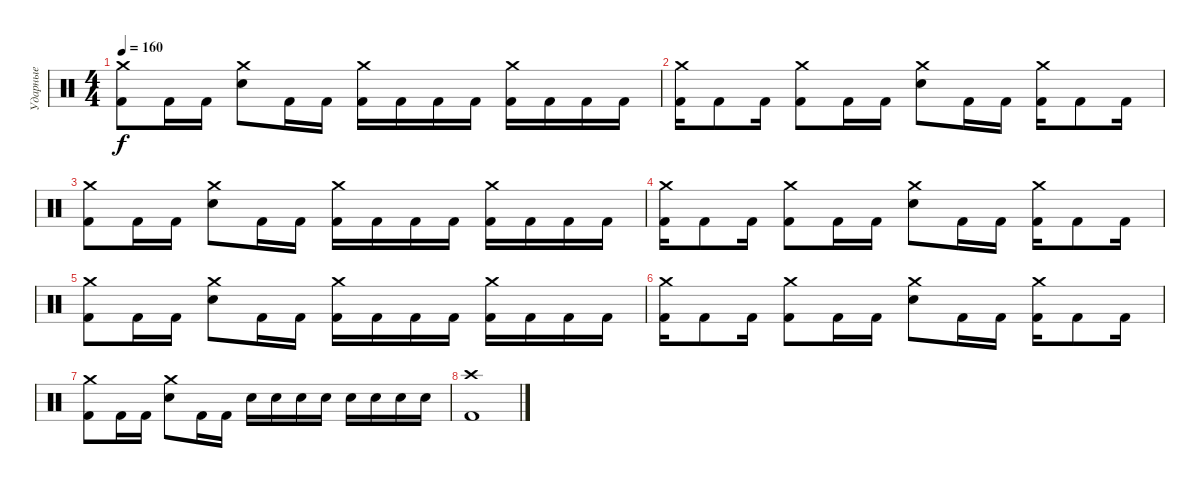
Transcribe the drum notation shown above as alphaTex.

\track ("Ударные" "Ударные") {instrument percussion}
\staff {score}
\articulation defaults
\ts (4 4)
\tempo 160
\clef neutral
\ks c
("Crash medium (hit)" "Kick (hit) 2").8{dy f} "Kick (hit) 2".16 "Kick (hit) 2".16 ("Crash medium (hit)" "Electric Snare (hit)").8 "Kick (hit) 2".16 "Kick (hit) 2".16 ("Crash medium (hit)" "Kick (hit) 2").16 "Kick (hit) 2".16 "Kick (hit) 2".16 "Kick (hit) 2".16 ("Crash medium (hit)" "Kick (hit) 2").16 "Kick (hit) 2".16 "Kick (hit) 2".16 "Kick (hit) 2".16 |
("Crash medium (hit)" "Kick (hit) 2").16 "Kick (hit) 2".8 "Kick (hit) 2".16 ("Crash medium (hit)" "Kick (hit) 2").8 "Kick (hit) 2".16 "Kick (hit) 2".16 ("Crash medium (hit)" "Electric Snare (hit)").8 "Kick (hit) 2".16 "Kick (hit) 2".16 ("Crash medium (hit)" "Kick (hit) 2").16 "Kick (hit) 2".8 "Kick (hit) 2".16 |
("Crash medium (hit)" "Kick (hit) 2").8 "Kick (hit) 2".16 "Kick (hit) 2".16 ("Crash medium (hit)" "Electric Snare (hit)").8 "Kick (hit) 2".16 "Kick (hit) 2".16 ("Crash medium (hit)" "Kick (hit) 2").16 "Kick (hit) 2".16 "Kick (hit) 2".16 "Kick (hit) 2".16 ("Crash medium (hit)" "Kick (hit) 2").16 "Kick (hit) 2".16 "Kick (hit) 2".16 "Kick (hit) 2".16 |
("Crash medium (hit)" "Kick (hit) 2").16 "Kick (hit) 2".8 "Kick (hit) 2".16 ("Crash medium (hit)" "Kick (hit) 2").8 "Kick (hit) 2".16 "Kick (hit) 2".16 ("Crash medium (hit)" "Electric Snare (hit)").8 "Kick (hit) 2".16 "Kick (hit) 2".16 ("Crash medium (hit)" "Kick (hit) 2").16 "Kick (hit) 2".8 "Kick (hit) 2".16 |
("Crash medium (hit)" "Kick (hit) 2").8 "Kick (hit) 2".16 "Kick (hit) 2".16 ("Crash medium (hit)" "Electric Snare (hit)").8 "Kick (hit) 2".16 "Kick (hit) 2".16 ("Crash medium (hit)" "Kick (hit) 2").16 "Kick (hit) 2".16 "Kick (hit) 2".16 "Kick (hit) 2".16 ("Crash medium (hit)" "Kick (hit) 2").16 "Kick (hit) 2".16 "Kick (hit) 2".16 "Kick (hit) 2".16 |
("Crash medium (hit)" "Kick (hit) 2").16 "Kick (hit) 2".8 "Kick (hit) 2".16 ("Crash medium (hit)" "Kick (hit) 2").8 "Kick (hit) 2".16 "Kick (hit) 2".16 ("Crash medium (hit)" "Electric Snare (hit)").8 "Kick (hit) 2".16 "Kick (hit) 2".16 ("Crash medium (hit)" "Kick (hit) 2").16 "Kick (hit) 2".8 "Kick (hit) 2".16 |
("Crash medium (hit)" "Kick (hit) 2").8 "Kick (hit) 2".16 "Kick (hit) 2".16 ("Crash medium (hit)" "Electric Snare (hit)").8 "Kick (hit) 2".16 "Kick (hit) 2".16 "Electric Snare (hit)".16 "Electric Snare (hit)".16 "Electric Snare (hit)".16 "Electric Snare (hit)".16 "Electric Snare (hit)".16 "Electric Snare (hit)".16 "Electric Snare (hit)".16 "Electric Snare (hit)".16 |
("Crash high (hit)" "Kick (hit) 2").1
